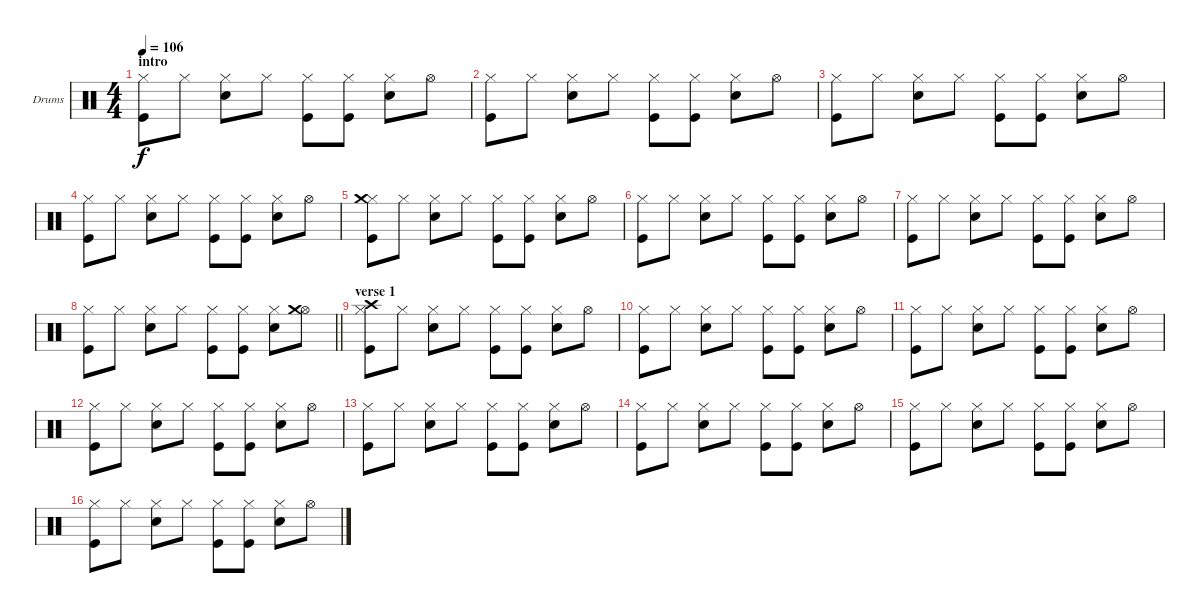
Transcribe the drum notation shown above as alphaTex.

\bracketExtendMode groupsimilarinstruments
\firstSystemTrackNameOrientation horizontal
\otherSystemsTrackNameOrientation horizontal
\track ("Drumkit" "Drums") {instrument percussion}
\staff {score}
\articulation defaults
\ts (4 4)
\beaming (8 2 2 2 2)
\section ("" "intro")
\tempo 106
\clef neutral
\ks c
("Hi-Hat (closed)" "Kick (hit)").8{dy f} "Hi-Hat (closed)".8 ("Hi-Hat (closed)" "Snare (hit) 2").8 "Hi-Hat (closed)".8 ("Hi-Hat (closed)" "Kick (hit)").8 ("Hi-Hat (closed)" "Kick (hit)").8 ("Hi-Hat (closed)" "Snare (hit) 2").8 "Hi-Hat (open)".8 |
("Hi-Hat (closed)" "Kick (hit)").8 "Hi-Hat (closed)".8 ("Hi-Hat (closed)" "Snare (hit) 2").8 "Hi-Hat (closed)".8 ("Hi-Hat (closed)" "Kick (hit)").8 ("Hi-Hat (closed)" "Kick (hit)").8 ("Hi-Hat (closed)" "Snare (hit) 2").8 "Hi-Hat (open)".8 |
("Hi-Hat (closed)" "Kick (hit)").8 "Hi-Hat (closed)".8 ("Hi-Hat (closed)" "Snare (hit) 2").8 "Hi-Hat (closed)".8 ("Hi-Hat (closed)" "Kick (hit)").8 ("Hi-Hat (closed)" "Kick (hit)").8 ("Hi-Hat (closed)" "Snare (hit) 2").8 "Hi-Hat (open)".8 |
("Hi-Hat (closed)" "Kick (hit)").8 "Hi-Hat (closed)".8 ("Hi-Hat (closed)" "Snare (hit) 2").8 "Hi-Hat (closed)".8 ("Hi-Hat (closed)" "Kick (hit)").8 ("Hi-Hat (closed)" "Kick (hit)").8 ("Hi-Hat (closed)" "Snare (hit) 2").8 "Hi-Hat (open)".8 |
("Hi-Hat (closed)" "Crash medium (hit)" "Kick (hit)").8 "Hi-Hat (closed)".8 ("Hi-Hat (closed)" "Snare (hit) 2").8 "Hi-Hat (closed)".8 ("Hi-Hat (closed)" "Kick (hit)").8 ("Hi-Hat (closed)" "Kick (hit)").8 ("Hi-Hat (closed)" "Snare (hit) 2").8 "Hi-Hat (open)".8 |
("Hi-Hat (closed)" "Kick (hit)").8 "Hi-Hat (closed)".8 ("Hi-Hat (closed)" "Snare (hit) 2").8 "Hi-Hat (closed)".8 ("Hi-Hat (closed)" "Kick (hit)").8 ("Hi-Hat (closed)" "Kick (hit)").8 ("Hi-Hat (closed)" "Snare (hit) 2").8 "Hi-Hat (open)".8 |
("Hi-Hat (closed)" "Kick (hit)").8 "Hi-Hat (closed)".8 ("Hi-Hat (closed)" "Snare (hit) 2").8 "Hi-Hat (closed)".8 ("Hi-Hat (closed)" "Kick (hit)").8 ("Hi-Hat (closed)" "Kick (hit)").8 ("Hi-Hat (closed)" "Snare (hit) 2").8 "Hi-Hat (open)".8 |
\barLineRight lightlight
("Hi-Hat (closed)" "Kick (hit)").8 "Hi-Hat (closed)".8 ("Hi-Hat (closed)" "Snare (hit) 2").8 "Hi-Hat (closed)".8 ("Hi-Hat (closed)" "Kick (hit)").8 ("Hi-Hat (closed)" "Kick (hit)").8 ("Hi-Hat (closed)" "Snare (hit) 2").8 ("Hi-Hat (open)" "Crash medium (hit)").8 |
\section ("" "verse 1")
("Hi-Hat (closed)" "Crash high (hit)" "Kick (hit)").8 "Hi-Hat (closed)".8 ("Hi-Hat (closed)" "Snare (hit) 2").8 "Hi-Hat (closed)".8 ("Hi-Hat (closed)" "Kick (hit)").8 ("Hi-Hat (closed)" "Kick (hit)").8 ("Hi-Hat (closed)" "Snare (hit) 2").8 "Hi-Hat (open)".8 |
("Hi-Hat (closed)" "Kick (hit)").8 "Hi-Hat (closed)".8 ("Hi-Hat (closed)" "Snare (hit) 2").8 "Hi-Hat (closed)".8 ("Hi-Hat (closed)" "Kick (hit)").8 ("Hi-Hat (closed)" "Kick (hit)").8 ("Hi-Hat (closed)" "Snare (hit) 2").8 "Hi-Hat (open)".8 |
("Hi-Hat (closed)" "Kick (hit)").8 "Hi-Hat (closed)".8 ("Hi-Hat (closed)" "Snare (hit) 2").8 "Hi-Hat (closed)".8 ("Hi-Hat (closed)" "Kick (hit)").8 ("Hi-Hat (closed)" "Kick (hit)").8 ("Hi-Hat (closed)" "Snare (hit) 2").8 "Hi-Hat (open)".8 |
("Hi-Hat (closed)" "Kick (hit)").8 "Hi-Hat (closed)".8 ("Hi-Hat (closed)" "Snare (hit) 2").8 "Hi-Hat (closed)".8 ("Hi-Hat (closed)" "Kick (hit)").8 ("Hi-Hat (closed)" "Kick (hit)").8 ("Hi-Hat (closed)" "Snare (hit) 2").8 "Hi-Hat (open)".8 |
("Hi-Hat (closed)" "Kick (hit)").8 "Hi-Hat (closed)".8 ("Hi-Hat (closed)" "Snare (hit) 2").8 "Hi-Hat (closed)".8 ("Hi-Hat (closed)" "Kick (hit)").8 ("Hi-Hat (closed)" "Kick (hit)").8 ("Hi-Hat (closed)" "Snare (hit) 2").8 "Hi-Hat (open)".8 |
("Hi-Hat (closed)" "Kick (hit)").8 "Hi-Hat (closed)".8 ("Hi-Hat (closed)" "Snare (hit) 2").8 "Hi-Hat (closed)".8 ("Hi-Hat (closed)" "Kick (hit)").8 ("Hi-Hat (closed)" "Kick (hit)").8 ("Hi-Hat (closed)" "Snare (hit) 2").8 "Hi-Hat (open)".8 |
("Hi-Hat (closed)" "Kick (hit)").8 "Hi-Hat (closed)".8 ("Hi-Hat (closed)" "Snare (hit) 2").8 "Hi-Hat (closed)".8 ("Hi-Hat (closed)" "Kick (hit)").8 ("Hi-Hat (closed)" "Kick (hit)").8 ("Hi-Hat (closed)" "Snare (hit) 2").8 "Hi-Hat (open)".8 |
("Hi-Hat (closed)" "Kick (hit)").8 "Hi-Hat (closed)".8 ("Hi-Hat (closed)" "Snare (hit) 2").8 "Hi-Hat (closed)".8 ("Hi-Hat (closed)" "Kick (hit)").8 ("Hi-Hat (closed)" "Kick (hit)").8 ("Hi-Hat (closed)" "Snare (hit) 2").8 "Hi-Hat (open)".8
